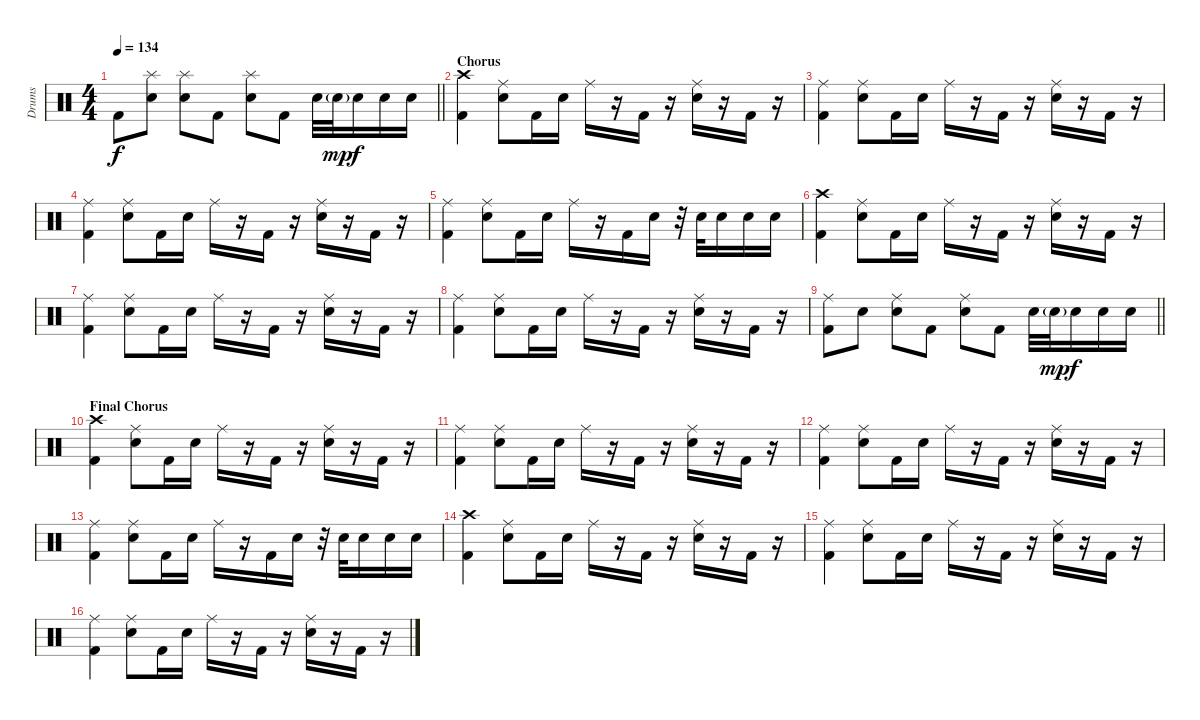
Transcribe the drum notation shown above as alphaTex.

\track ("Drums" "Drums") {instrument percussion}
\staff {score}
\articulation defaults
\ts (4 4)
\tempo 134
\clef neutral
\barLineRight lightlight
\ks c "Kick (hit) 2".8{dy f}
("Splash (hit)" "Electric Snare (hit)").8 ("Splash (hit)" "Electric Snare (hit)").8 "Kick (hit) 2".8 ("Splash (hit)" "Electric Snare (hit)").8 "Kick (hit) 2".8 "Electric Snare (hit)".32 "Electric Snare (hit)"{g}.32{dy mp} "Electric Snare (hit)".16{dy f} "Electric Snare (hit)".16 "Electric Snare (hit)".16 |
\section ("" "Chorus")
("Crash high (hit)" "Kick (hit) 2").4 ("Ride (middle)" "Electric Snare (hit)").8 "Kick (hit) 2".16 "Electric Snare (hit)".16 "Ride (middle)".16 r.16 "Kick (hit) 2".16 r.16 ("Ride (middle)" "Electric Snare (hit)").16 r.16 "Kick (hit) 2".16 r.16 |
("Ride (middle)" "Kick (hit) 2").4 ("Ride (middle)" "Electric Snare (hit)").8 "Kick (hit) 2".16 "Electric Snare (hit)".16 "Ride (middle)".16 r.16 "Kick (hit) 2".16 r.16 ("Ride (middle)" "Electric Snare (hit)").16 r.16 "Kick (hit) 2".16 r.16 |
("Ride (middle)" "Kick (hit) 2").4 ("Ride (middle)" "Electric Snare (hit)").8 "Kick (hit) 2".16 "Electric Snare (hit)".16 "Ride (middle)".16 r.16 "Kick (hit) 2".16 r.16 ("Ride (middle)" "Electric Snare (hit)").16 r.16 "Kick (hit) 2".16 r.16 |
("Ride (middle)" "Kick (hit) 2").4 ("Ride (middle)" "Electric Snare (hit)").8 "Kick (hit) 2".16 "Electric Snare (hit)".16 "Ride (middle)".16 r.16 "Kick (hit) 2".16 "Electric Snare (hit)".16 r.32 "Electric Snare (hit)".32 "Electric Snare (hit)".16 "Electric Snare (hit)".16 "Electric Snare (hit)".16 |
("Crash high (hit)" "Kick (hit) 2").4 ("Ride (middle)" "Electric Snare (hit)").8 "Kick (hit) 2".16 "Electric Snare (hit)".16 "Ride (middle)".16 r.16 "Kick (hit) 2".16 r.16 ("Ride (middle)" "Electric Snare (hit)").16 r.16 "Kick (hit) 2".16 r.16 |
("Ride (middle)" "Kick (hit) 2").4 ("Ride (middle)" "Electric Snare (hit)").8 "Kick (hit) 2".16 "Electric Snare (hit)".16 "Ride (middle)".16 r.16 "Kick (hit) 2".16 r.16 ("Ride (middle)" "Electric Snare (hit)").16 r.16 "Kick (hit) 2".16 r.16 |
("Ride (middle)" "Kick (hit) 2").4 ("Ride (middle)" "Electric Snare (hit)").8 "Kick (hit) 2".16 "Electric Snare (hit)".16 "Ride (middle)".16 r.16 "Kick (hit) 2".16 r.16 ("Ride (middle)" "Electric Snare (hit)").16 r.16 "Kick (hit) 2".16 r.16 |
\barLineRight lightlight
("Ride (middle)" "Kick (hit) 2").8 "Electric Snare (hit)".8 ("Ride (middle)" "Electric Snare (hit)").8 "Kick (hit) 2".8 ("Ride (middle)" "Electric Snare (hit)").8 "Kick (hit) 2".8 "Electric Snare (hit)".32 "Electric Snare (hit)"{g}.32{dy mp} "Electric Snare (hit)".16{dy f} "Electric Snare (hit)".16 "Electric Snare (hit)".16 |
\section ("" "Final Chorus")
("Crash high (hit)" "Kick (hit) 2").4 ("Ride (middle)" "Electric Snare (hit)").8 "Kick (hit) 2".16 "Electric Snare (hit)".16 "Ride (middle)".16 r.16 "Kick (hit) 2".16 r.16 ("Ride (middle)" "Electric Snare (hit)").16 r.16 "Kick (hit) 2".16 r.16 |
("Ride (middle)" "Kick (hit) 2").4 ("Ride (middle)" "Electric Snare (hit)").8 "Kick (hit) 2".16 "Electric Snare (hit)".16 "Ride (middle)".16 r.16 "Kick (hit) 2".16 r.16 ("Ride (middle)" "Electric Snare (hit)").16 r.16 "Kick (hit) 2".16 r.16 |
("Ride (middle)" "Kick (hit) 2").4 ("Ride (middle)" "Electric Snare (hit)").8 "Kick (hit) 2".16 "Electric Snare (hit)".16 "Ride (middle)".16 r.16 "Kick (hit) 2".16 r.16 ("Ride (middle)" "Electric Snare (hit)").16 r.16 "Kick (hit) 2".16 r.16 |
("Ride (middle)" "Kick (hit) 2").4 ("Ride (middle)" "Electric Snare (hit)").8 "Kick (hit) 2".16 "Electric Snare (hit)".16 "Ride (middle)".16 r.16 "Kick (hit) 2".16 "Electric Snare (hit)".16 r.32 "Electric Snare (hit)".32 "Electric Snare (hit)".16 "Electric Snare (hit)".16 "Electric Snare (hit)".16 |
("Crash high (hit)" "Kick (hit) 2").4 ("Ride (middle)" "Electric Snare (hit)").8 "Kick (hit) 2".16 "Electric Snare (hit)".16 "Ride (middle)".16 r.16 "Kick (hit) 2".16 r.16 ("Ride (middle)" "Electric Snare (hit)").16 r.16 "Kick (hit) 2".16 r.16 |
("Ride (middle)" "Kick (hit) 2").4 ("Ride (middle)" "Electric Snare (hit)").8 "Kick (hit) 2".16 "Electric Snare (hit)".16 "Ride (middle)".16 r.16 "Kick (hit) 2".16 r.16 ("Ride (middle)" "Electric Snare (hit)").16 r.16 "Kick (hit) 2".16 r.16 |
("Ride (middle)" "Kick (hit) 2").4 ("Ride (middle)" "Electric Snare (hit)").8 "Kick (hit) 2".16 "Electric Snare (hit)".16 "Ride (middle)".16 r.16 "Kick (hit) 2".16 r.16 ("Ride (middle)" "Electric Snare (hit)").16 r.16 "Kick (hit) 2".16 r.16
